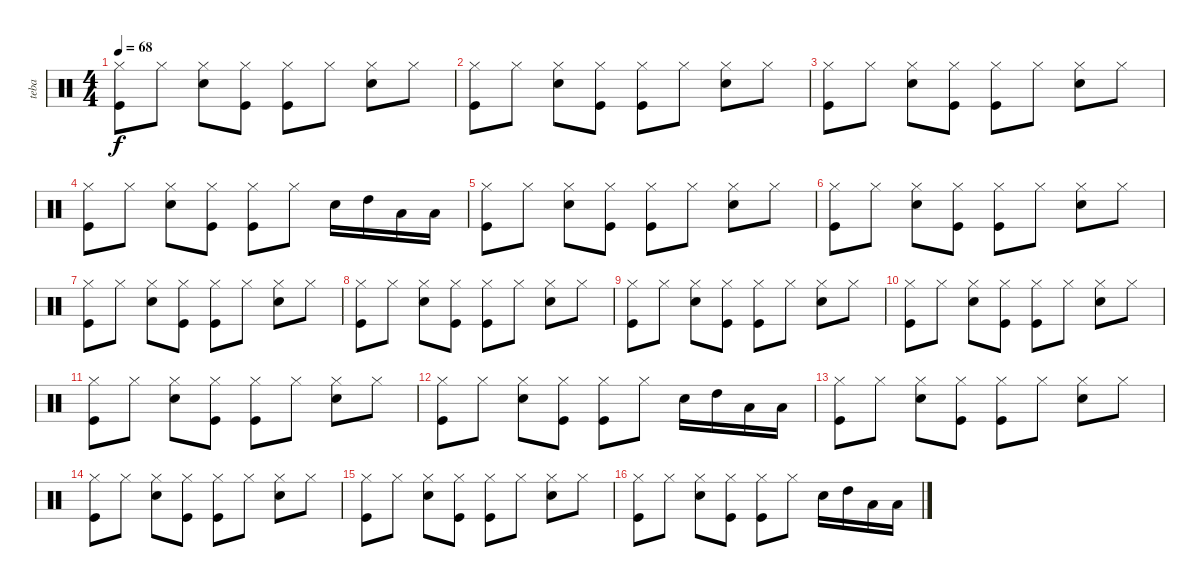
\track ("teba" "teba") {instrument percussion}
\staff {score}
\articulation defaults
\ts (4 4)
\tempo 68
\clef neutral
\ks c
("Hi-Hat (closed)" "Kick (hit)").8{dy f} "Hi-Hat (closed)".8 ("Hi-Hat (closed)" "Electric Snare (hit)").8 ("Hi-Hat (closed)" "Kick (hit)").8 ("Hi-Hat (closed)" "Kick (hit)").8 "Hi-Hat (closed)".8 ("Hi-Hat (closed)" "Electric Snare (hit)").8 "Hi-Hat (closed)".8 |
("Hi-Hat (closed)" "Kick (hit)").8 "Hi-Hat (closed)".8 ("Hi-Hat (closed)" "Electric Snare (hit)").8 ("Hi-Hat (closed)" "Kick (hit)").8 ("Hi-Hat (closed)" "Kick (hit)").8 "Hi-Hat (closed)".8 ("Hi-Hat (closed)" "Electric Snare (hit)").8 "Hi-Hat (closed)".8 |
("Hi-Hat (closed)" "Kick (hit)").8 "Hi-Hat (closed)".8 ("Hi-Hat (closed)" "Electric Snare (hit)").8 ("Hi-Hat (closed)" "Kick (hit)").8 ("Hi-Hat (closed)" "Kick (hit)").8 "Hi-Hat (closed)".8 ("Hi-Hat (closed)" "Electric Snare (hit)").8 "Hi-Hat (closed)".8 |
("Hi-Hat (closed)" "Kick (hit)").8 "Hi-Hat (closed)".8 ("Hi-Hat (closed)" "Electric Snare (hit)").8 ("Hi-Hat (closed)" "Kick (hit)").8 ("Hi-Hat (closed)" "Kick (hit)").8 "Hi-Hat (closed)".8 "Electric Snare (hit)".16 "High Tom (hit)".16 "Low Tom (hit)".16 "Low Floor Tom (hit)".16 |
("Hi-Hat (closed)" "Kick (hit)").8 "Hi-Hat (closed)".8 ("Hi-Hat (closed)" "Electric Snare (hit)").8 ("Hi-Hat (closed)" "Kick (hit)").8 ("Hi-Hat (closed)" "Kick (hit)").8 "Hi-Hat (closed)".8 ("Hi-Hat (closed)" "Electric Snare (hit)").8 "Hi-Hat (closed)".8 |
("Hi-Hat (closed)" "Kick (hit)").8 "Hi-Hat (closed)".8 ("Hi-Hat (closed)" "Electric Snare (hit)").8 ("Hi-Hat (closed)" "Kick (hit)").8 ("Hi-Hat (closed)" "Kick (hit)").8 "Hi-Hat (closed)".8 ("Hi-Hat (closed)" "Electric Snare (hit)").8 "Hi-Hat (closed)".8 |
("Hi-Hat (closed)" "Kick (hit)").8 "Hi-Hat (closed)".8 ("Hi-Hat (closed)" "Electric Snare (hit)").8 ("Hi-Hat (closed)" "Kick (hit)").8 ("Hi-Hat (closed)" "Kick (hit)").8 "Hi-Hat (closed)".8 ("Hi-Hat (closed)" "Electric Snare (hit)").8 "Hi-Hat (closed)".8 |
("Hi-Hat (closed)" "Kick (hit)").8 "Hi-Hat (closed)".8 ("Hi-Hat (closed)" "Electric Snare (hit)").8 ("Hi-Hat (closed)" "Kick (hit)").8 ("Hi-Hat (closed)" "Kick (hit)").8 "Hi-Hat (closed)".8 ("Hi-Hat (closed)" "Electric Snare (hit)").8 "Hi-Hat (closed)".8 |
("Hi-Hat (closed)" "Kick (hit)").8 "Hi-Hat (closed)".8 ("Hi-Hat (closed)" "Electric Snare (hit)").8 ("Hi-Hat (closed)" "Kick (hit)").8 ("Hi-Hat (closed)" "Kick (hit)").8 "Hi-Hat (closed)".8 ("Hi-Hat (closed)" "Electric Snare (hit)").8 "Hi-Hat (closed)".8 |
("Hi-Hat (closed)" "Kick (hit)").8 "Hi-Hat (closed)".8 ("Hi-Hat (closed)" "Electric Snare (hit)").8 ("Hi-Hat (closed)" "Kick (hit)").8 ("Hi-Hat (closed)" "Kick (hit)").8 "Hi-Hat (closed)".8 ("Hi-Hat (closed)" "Electric Snare (hit)").8 "Hi-Hat (closed)".8 |
("Hi-Hat (closed)" "Kick (hit)").8 "Hi-Hat (closed)".8 ("Hi-Hat (closed)" "Electric Snare (hit)").8 ("Hi-Hat (closed)" "Kick (hit)").8 ("Hi-Hat (closed)" "Kick (hit)").8 "Hi-Hat (closed)".8 ("Hi-Hat (closed)" "Electric Snare (hit)").8 "Hi-Hat (closed)".8 |
("Hi-Hat (closed)" "Kick (hit)").8 "Hi-Hat (closed)".8 ("Hi-Hat (closed)" "Electric Snare (hit)").8 ("Hi-Hat (closed)" "Kick (hit)").8 ("Hi-Hat (closed)" "Kick (hit)").8 "Hi-Hat (closed)".8 "Electric Snare (hit)".16 "High Tom (hit)".16 "Low Tom (hit)".16 "Low Floor Tom (hit)".16 |
("Hi-Hat (closed)" "Kick (hit)").8 "Hi-Hat (closed)".8 ("Hi-Hat (closed)" "Electric Snare (hit)").8 ("Hi-Hat (closed)" "Kick (hit)").8 ("Hi-Hat (closed)" "Kick (hit)").8 "Hi-Hat (closed)".8 ("Hi-Hat (closed)" "Electric Snare (hit)").8 "Hi-Hat (closed)".8 |
("Hi-Hat (closed)" "Kick (hit)").8 "Hi-Hat (closed)".8 ("Hi-Hat (closed)" "Electric Snare (hit)").8 ("Hi-Hat (closed)" "Kick (hit)").8 ("Hi-Hat (closed)" "Kick (hit)").8 "Hi-Hat (closed)".8 ("Hi-Hat (closed)" "Electric Snare (hit)").8 "Hi-Hat (closed)".8 |
("Hi-Hat (closed)" "Kick (hit)").8 "Hi-Hat (closed)".8 ("Hi-Hat (closed)" "Electric Snare (hit)").8 ("Hi-Hat (closed)" "Kick (hit)").8 ("Hi-Hat (closed)" "Kick (hit)").8 "Hi-Hat (closed)".8 ("Hi-Hat (closed)" "Electric Snare (hit)").8 "Hi-Hat (closed)".8 |
("Hi-Hat (closed)" "Kick (hit)").8 "Hi-Hat (closed)".8 ("Hi-Hat (closed)" "Electric Snare (hit)").8 ("Hi-Hat (closed)" "Kick (hit)").8 ("Hi-Hat (closed)" "Kick (hit)").8 "Hi-Hat (closed)".8 "Electric Snare (hit)".16 "High Tom (hit)".16 "Low Tom (hit)".16 "Low Floor Tom (hit)".16
